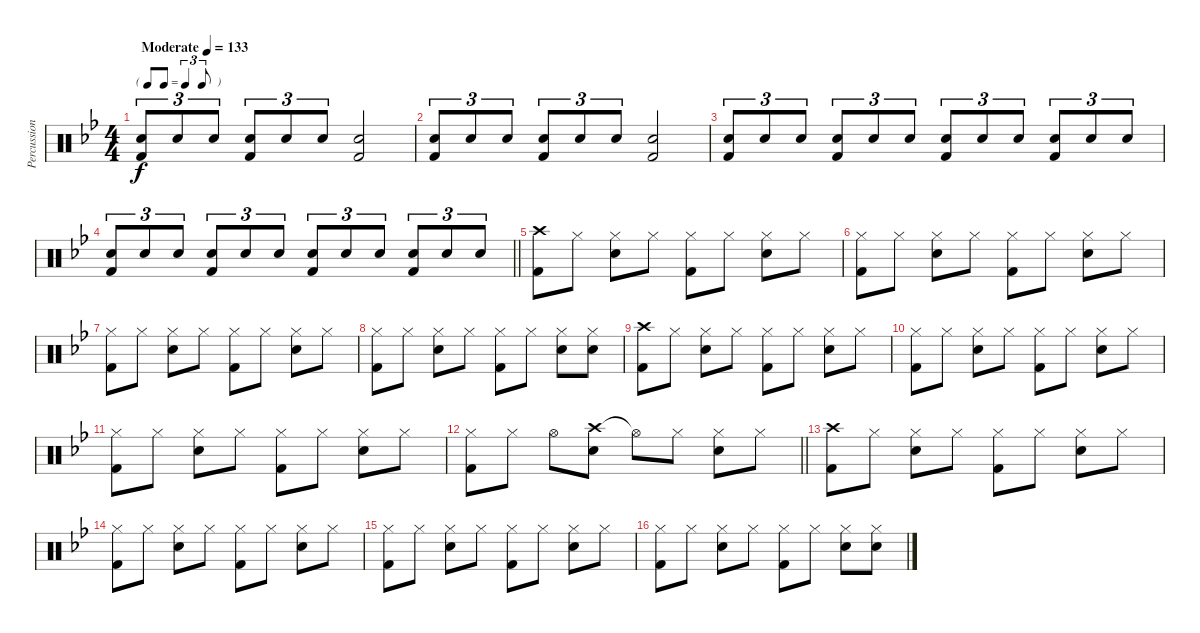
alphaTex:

\track ("Percussion" "Percussion") {instrument percussion}
\staff {score}
\articulation defaults
\ts (4 4)
\tf triplet8th
\tempo (133 "Moderate")
\clef neutral
\ks bb
("Snare (hit) 2" "Kick (hit) 2").8{tu (3 2) dy f} "Snare (hit) 2".8{tu (3 2)} "Snare (hit) 2".8{tu (3 2)} ("Snare (hit) 2" "Kick (hit) 2").8{tu (3 2)} "Snare (hit) 2".8{tu (3 2)} "Snare (hit) 2".8{tu (3 2)} ("Snare (hit) 2" "Kick (hit) 2").2 |
("Snare (hit) 2" "Kick (hit) 2").8{tu (3 2)} "Snare (hit) 2".8{tu (3 2)} "Snare (hit) 2".8{tu (3 2)} ("Snare (hit) 2" "Kick (hit) 2").8{tu (3 2)} "Snare (hit) 2".8{tu (3 2)} "Snare (hit) 2".8{tu (3 2)} ("Snare (hit) 2" "Kick (hit) 2").2 |
("Snare (hit) 2" "Kick (hit) 2").8{tu (3 2)} "Snare (hit) 2".8{tu (3 2)} "Snare (hit) 2".8{tu (3 2)} ("Snare (hit) 2" "Kick (hit) 2").8{tu (3 2)} "Snare (hit) 2".8{tu (3 2)} "Snare (hit) 2".8{tu (3 2)} ("Snare (hit) 2" "Kick (hit) 2").8{tu (3 2)} "Snare (hit) 2".8{tu (3 2)} "Snare (hit) 2".8{tu (3 2)} ("Snare (hit) 2" "Kick (hit) 2").8{tu (3 2)} "Snare (hit) 2".8{tu (3 2)} "Snare (hit) 2".8{tu (3 2)} |
\barLineRight lightlight
("Snare (hit) 2" "Kick (hit) 2").8{tu (3 2)} "Snare (hit) 2".8{tu (3 2)} "Snare (hit) 2".8{tu (3 2)} ("Snare (hit) 2" "Kick (hit) 2").8{tu (3 2)} "Snare (hit) 2".8{tu (3 2)} "Snare (hit) 2".8{tu (3 2)} ("Snare (hit) 2" "Kick (hit) 2").8{tu (3 2)} "Snare (hit) 2".8{tu (3 2)} "Snare (hit) 2".8{tu (3 2)} ("Snare (hit) 2" "Kick (hit) 2").8{tu (3 2)} "Snare (hit) 2".8{tu (3 2)} "Snare (hit) 2".8{tu (3 2)} |
("Crash high (hit)" "Kick (hit) 2").8 "Hi-Hat (closed)".8 ("Hi-Hat (closed)" "Snare (hit) 2").8 "Hi-Hat (closed)".8 ("Hi-Hat (closed)" "Kick (hit) 2").8 "Hi-Hat (closed)".8 ("Hi-Hat (closed)" "Snare (hit) 2").8 "Hi-Hat (closed)".8 |
("Hi-Hat (closed)" "Kick (hit) 2").8 "Hi-Hat (closed)".8 ("Hi-Hat (closed)" "Snare (hit) 2").8 "Hi-Hat (closed)".8 ("Hi-Hat (closed)" "Kick (hit) 2").8 "Hi-Hat (closed)".8 ("Hi-Hat (closed)" "Snare (hit) 2").8 "Hi-Hat (closed)".8 |
("Hi-Hat (closed)" "Kick (hit) 2").8 "Hi-Hat (closed)".8 ("Hi-Hat (closed)" "Snare (hit) 2").8 "Hi-Hat (closed)".8 ("Hi-Hat (closed)" "Kick (hit) 2").8 "Hi-Hat (closed)".8 ("Hi-Hat (closed)" "Snare (hit) 2").8 "Hi-Hat (closed)".8 |
("Hi-Hat (closed)" "Kick (hit) 2").8 "Hi-Hat (closed)".8 ("Hi-Hat (closed)" "Snare (hit) 2").8 "Hi-Hat (closed)".8 ("Hi-Hat (closed)" "Kick (hit) 2").8 "Hi-Hat (closed)".8 ("Hi-Hat (closed)" "Snare (hit) 2").8 ("Hi-Hat (closed)" "Snare (hit) 2").8 |
("Crash high (hit)" "Kick (hit) 2").8 "Hi-Hat (closed)".8 ("Hi-Hat (closed)" "Snare (hit) 2").8 "Hi-Hat (closed)".8 ("Hi-Hat (closed)" "Kick (hit) 2").8 "Hi-Hat (closed)".8 ("Hi-Hat (closed)" "Snare (hit) 2").8 "Hi-Hat (closed)".8 |
("Hi-Hat (closed)" "Kick (hit) 2").8 "Hi-Hat (closed)".8 ("Hi-Hat (closed)" "Snare (hit) 2").8 "Hi-Hat (closed)".8 ("Hi-Hat (closed)" "Kick (hit) 2").8 "Hi-Hat (closed)".8 ("Hi-Hat (closed)" "Snare (hit) 2").8 "Hi-Hat (closed)".8 |
("Hi-Hat (closed)" "Kick (hit) 2").8 "Hi-Hat (closed)".8 ("Hi-Hat (closed)" "Snare (hit) 2").8 "Hi-Hat (closed)".8 ("Hi-Hat (closed)" "Kick (hit) 2").8 "Hi-Hat (closed)".8 ("Hi-Hat (closed)" "Snare (hit) 2").8 "Hi-Hat (closed)".8 |
\barLineRight lightlight
("Hi-Hat (closed)" "Kick (hit) 2").8 "Hi-Hat (closed)".8 "Hi-Hat (open)".8 ("Crash high (hit)" "Snare (hit) 2").8 "Hi-Hat (open)"{t}.8 "Hi-Hat (closed)".8 ("Hi-Hat (closed)" "Snare (hit) 2").8 "Hi-Hat (closed)".8 |
("Crash high (hit)" "Kick (hit) 2").8 "Hi-Hat (closed)".8 ("Hi-Hat (closed)" "Snare (hit) 2").8 "Hi-Hat (closed)".8 ("Hi-Hat (closed)" "Kick (hit) 2").8 "Hi-Hat (closed)".8 ("Hi-Hat (closed)" "Snare (hit) 2").8 "Hi-Hat (closed)".8 |
("Hi-Hat (closed)" "Kick (hit) 2").8 "Hi-Hat (closed)".8 ("Hi-Hat (closed)" "Snare (hit) 2").8 "Hi-Hat (closed)".8 ("Hi-Hat (closed)" "Kick (hit) 2").8 "Hi-Hat (closed)".8 ("Hi-Hat (closed)" "Snare (hit) 2").8 "Hi-Hat (closed)".8 |
("Hi-Hat (closed)" "Kick (hit) 2").8 "Hi-Hat (closed)".8 ("Hi-Hat (closed)" "Snare (hit) 2").8 "Hi-Hat (closed)".8 ("Hi-Hat (closed)" "Kick (hit) 2").8 "Hi-Hat (closed)".8 ("Hi-Hat (closed)" "Snare (hit) 2").8 "Hi-Hat (closed)".8 |
("Hi-Hat (closed)" "Kick (hit) 2").8 "Hi-Hat (closed)".8 ("Hi-Hat (closed)" "Snare (hit) 2").8 "Hi-Hat (closed)".8 ("Hi-Hat (closed)" "Kick (hit) 2").8 "Hi-Hat (closed)".8 ("Hi-Hat (closed)" "Snare (hit) 2").8 ("Hi-Hat (closed)" "Snare (hit) 2").8
